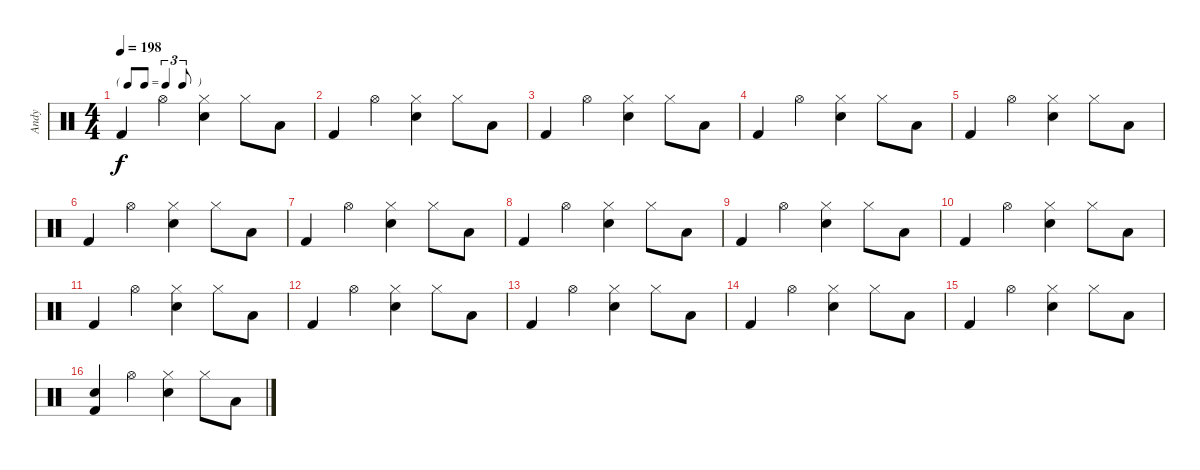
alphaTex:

\track ("Andy" "Andy") {instrument percussion}
\staff {score}
\articulation defaults
\ts (4 4)
\tf triplet8th
\tempo 198
\clef neutral
\ks c "Kick (hit) 2".4{dy f} "Hi-Hat (open)".4
("Hi-Hat (closed)" "Electric Snare (hit)").4 "Hi-Hat (closed)".8 "Low Floor Tom (hit)".8 |
"Kick (hit) 2".4 "Hi-Hat (open)".4 ("Hi-Hat (closed)" "Electric Snare (hit)").4 "Hi-Hat (closed)".8 "Low Floor Tom (hit)".8 |
"Kick (hit) 2".4 "Hi-Hat (open)".4 ("Hi-Hat (closed)" "Electric Snare (hit)").4 "Hi-Hat (closed)".8 "Low Floor Tom (hit)".8 |
"Kick (hit) 2".4 "Hi-Hat (open)".4 ("Hi-Hat (closed)" "Electric Snare (hit)").4 "Hi-Hat (closed)".8 "Low Floor Tom (hit)".8 |
"Kick (hit) 2".4 "Hi-Hat (open)".4 ("Hi-Hat (closed)" "Electric Snare (hit)").4 "Hi-Hat (closed)".8 "Low Floor Tom (hit)".8 |
"Kick (hit) 2".4 "Hi-Hat (open)".4 ("Hi-Hat (closed)" "Electric Snare (hit)").4 "Hi-Hat (closed)".8 "Low Floor Tom (hit)".8 |
"Kick (hit) 2".4 "Hi-Hat (open)".4 ("Hi-Hat (closed)" "Electric Snare (hit)").4 "Hi-Hat (closed)".8 "Low Floor Tom (hit)".8 |
"Kick (hit) 2".4 "Hi-Hat (open)".4 ("Hi-Hat (closed)" "Electric Snare (hit)").4 "Hi-Hat (closed)".8 "Low Floor Tom (hit)".8 |
"Kick (hit) 2".4 "Hi-Hat (open)".4 ("Hi-Hat (closed)" "Electric Snare (hit)").4 "Hi-Hat (closed)".8 "Low Floor Tom (hit)".8 |
"Kick (hit) 2".4 "Hi-Hat (open)".4 ("Hi-Hat (closed)" "Electric Snare (hit)").4 "Hi-Hat (closed)".8 "Low Floor Tom (hit)".8 |
"Kick (hit) 2".4 "Hi-Hat (open)".4 ("Hi-Hat (closed)" "Electric Snare (hit)").4 "Hi-Hat (closed)".8 "Low Floor Tom (hit)".8 |
"Kick (hit) 2".4 "Hi-Hat (open)".4 ("Hi-Hat (closed)" "Electric Snare (hit)").4 "Hi-Hat (closed)".8 "Low Floor Tom (hit)".8 |
"Kick (hit) 2".4 "Hi-Hat (open)".4 ("Hi-Hat (closed)" "Electric Snare (hit)").4 "Hi-Hat (closed)".8 "Low Floor Tom (hit)".8 |
"Kick (hit) 2".4 "Hi-Hat (open)".4 ("Hi-Hat (closed)" "Electric Snare (hit)").4 "Hi-Hat (closed)".8 "Low Floor Tom (hit)".8 |
"Kick (hit) 2".4 "Hi-Hat (open)".4 ("Hi-Hat (closed)" "Electric Snare (hit)").4 "Hi-Hat (closed)".8 "Low Floor Tom (hit)".8 |
("Electric Snare (hit)" "Kick (hit) 2").4 "Hi-Hat (open)".4 ("Hi-Hat (closed)" "Electric Snare (hit)").4 "Hi-Hat (closed)".8 "Low Floor Tom (hit)".8
